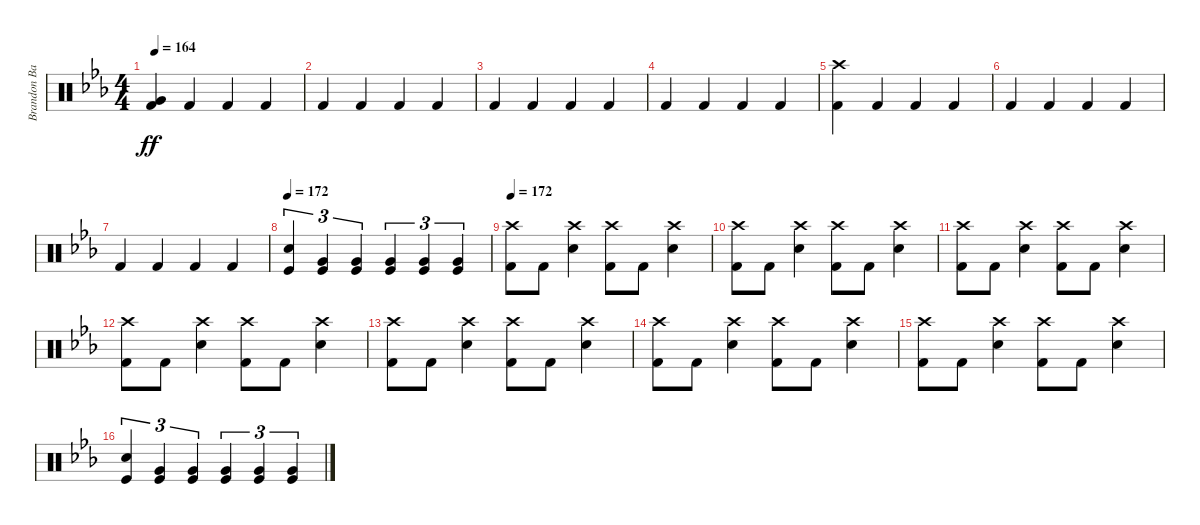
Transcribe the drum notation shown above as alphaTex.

\track ("Brandon Barnes - Drums" "Brandon Ba") {instrument percussion}
\staff {score}
\articulation defaults
\ts (4 4)
\tempo 164
\clef neutral
\ks eb
("Kick (hit) 2" "Very Low Tom (hit)").4{dy ff} "Kick (hit) 2".4 "Kick (hit) 2".4 "Kick (hit) 2".4 |
"Kick (hit) 2".4 "Kick (hit) 2".4 "Kick (hit) 2".4 "Kick (hit) 2".4 |
"Kick (hit) 2".4 "Kick (hit) 2".4 "Kick (hit) 2".4 "Kick (hit) 2".4 |
"Kick (hit) 2".4 "Kick (hit) 2".4 "Kick (hit) 2".4 "Kick (hit) 2".4 |
("Kick (hit) 2" "Crash high (hit)").4 "Kick (hit) 2".4 "Kick (hit) 2".4 "Kick (hit) 2".4 |
"Kick (hit) 2".4 "Kick (hit) 2".4 "Kick (hit) 2".4 "Kick (hit) 2".4 |
"Kick (hit) 2".4 "Kick (hit) 2".4 "Kick (hit) 2".4 "Kick (hit) 2".4 |
\tempo 172
("Snare (hit) 2" "Kick (hit)").4{tu (3 2)} ("Very Low Tom (hit)" "Kick (hit)").4{tu (3 2)} ("Very Low Tom (hit)" "Kick (hit)").4{tu (3 2)} ("Very Low Tom (hit)" "Kick (hit)").4{tu (3 2)} ("Very Low Tom (hit)" "Kick (hit)").4{tu (3 2)} ("Very Low Tom (hit)" "Kick (hit)").4{tu (3 2)} |
\tempo 172
("Crash high (hit)" "Kick (hit) 2").8 "Kick (hit) 2".8 ("Snare (hit) 2" "Crash high (hit)").4 ("Crash high (hit)" "Kick (hit) 2").8 "Kick (hit) 2".8 ("Snare (hit) 2" "Crash high (hit)").4 |
("Crash high (hit)" "Kick (hit) 2").8 "Kick (hit) 2".8 ("Snare (hit) 2" "Crash high (hit)").4 ("Crash high (hit)" "Kick (hit) 2").8 "Kick (hit) 2".8 ("Snare (hit) 2" "Crash high (hit)").4 |
("Crash high (hit)" "Kick (hit) 2").8 "Kick (hit) 2".8 ("Snare (hit) 2" "Crash high (hit)").4 ("Crash high (hit)" "Kick (hit) 2").8 "Kick (hit) 2".8 ("Snare (hit) 2" "Crash high (hit)").4 |
("Crash high (hit)" "Kick (hit) 2").8 "Kick (hit) 2".8 ("Snare (hit) 2" "Crash high (hit)").4 ("Crash high (hit)" "Kick (hit) 2").8 "Kick (hit) 2".8 ("Snare (hit) 2" "Crash high (hit)").4 |
("Crash high (hit)" "Kick (hit) 2").8 "Kick (hit) 2".8 ("Snare (hit) 2" "Crash high (hit)").4 ("Crash high (hit)" "Kick (hit) 2").8 "Kick (hit) 2".8 ("Snare (hit) 2" "Crash high (hit)").4 |
("Crash high (hit)" "Kick (hit) 2").8 "Kick (hit) 2".8 ("Snare (hit) 2" "Crash high (hit)").4 ("Crash high (hit)" "Kick (hit) 2").8 "Kick (hit) 2".8 ("Snare (hit) 2" "Crash high (hit)").4 |
("Crash high (hit)" "Kick (hit) 2").8 "Kick (hit) 2".8 ("Snare (hit) 2" "Crash high (hit)").4 ("Crash high (hit)" "Kick (hit) 2").8 "Kick (hit) 2".8 ("Snare (hit) 2" "Crash high (hit)").4 |
("Snare (hit) 2" "Kick (hit)").4{tu (3 2)} ("Very Low Tom (hit)" "Kick (hit)").4{tu (3 2)} ("Very Low Tom (hit)" "Kick (hit)").4{tu (3 2)} ("Very Low Tom (hit)" "Kick (hit)").4{tu (3 2)} ("Very Low Tom (hit)" "Kick (hit)").4{tu (3 2)} ("Very Low Tom (hit)" "Kick (hit)").4{tu (3 2)}
